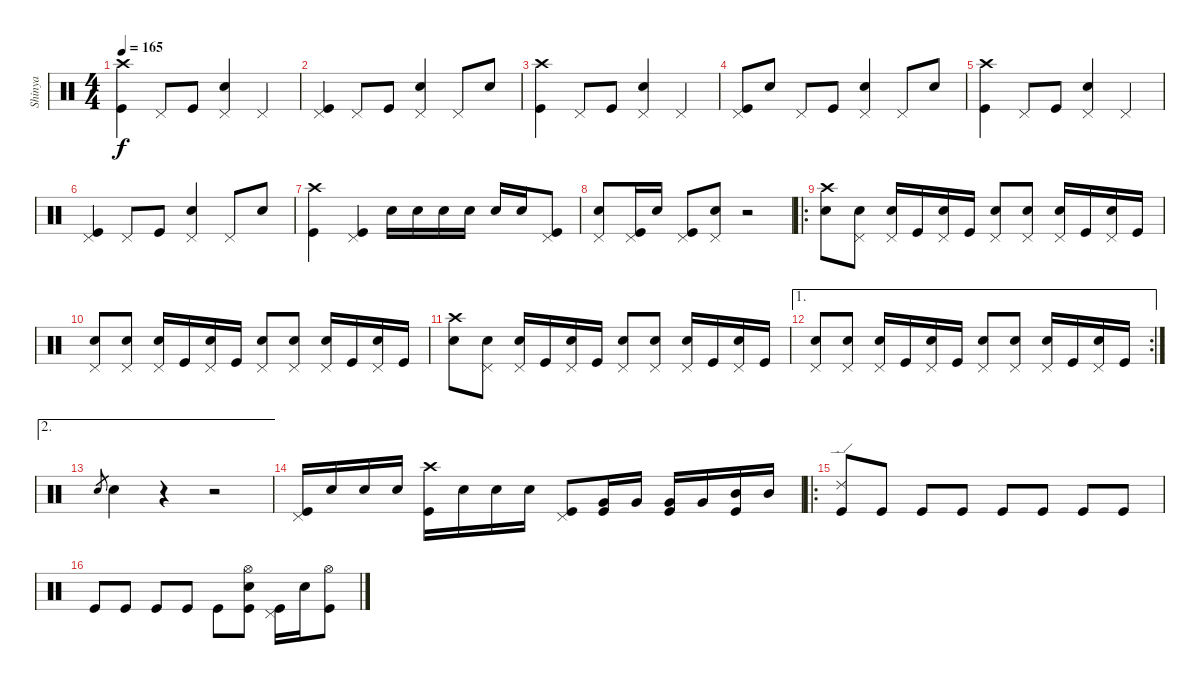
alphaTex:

\track ("Shinya" "Shinya") {instrument percussion}
\staff {score}
\articulation defaults
\ts (4 4)
\tempo 165
\clef neutral
\ks c
("Kick (hit)" "Crash high (hit)").4{dy f} "Pedal Hi-Hat (hit)".8 "Kick (hit)".8 ("Pedal Hi-Hat (hit)" "Electric Snare (hit)").4 "Pedal Hi-Hat (hit)".4 |
("Pedal Hi-Hat (hit)" "Kick (hit)").4 "Pedal Hi-Hat (hit)".8 "Kick (hit)".8 ("Electric Snare (hit)" "Pedal Hi-Hat (hit)").4 "Pedal Hi-Hat (hit)".8 "Electric Snare (hit)".8 |
("Kick (hit)" "Crash high (hit)").4 "Pedal Hi-Hat (hit)".8 "Kick (hit)".8 ("Pedal Hi-Hat (hit)" "Electric Snare (hit)").4 "Pedal Hi-Hat (hit)".4 |
("Pedal Hi-Hat (hit)" "Kick (hit)").8 "Electric Snare (hit)".8 "Pedal Hi-Hat (hit)".8 "Kick (hit)".8 ("Pedal Hi-Hat (hit)" "Electric Snare (hit)").4 "Pedal Hi-Hat (hit)".8 "Electric Snare (hit)".8 |
("Kick (hit)" "Crash high (hit)").4 "Pedal Hi-Hat (hit)".8 "Kick (hit)".8 ("Pedal Hi-Hat (hit)" "Electric Snare (hit)").4 "Pedal Hi-Hat (hit)".4 |
("Pedal Hi-Hat (hit)" "Kick (hit)").4 "Pedal Hi-Hat (hit)".8 "Kick (hit)".8 ("Electric Snare (hit)" "Pedal Hi-Hat (hit)").4 "Pedal Hi-Hat (hit)".8 "Electric Snare (hit)".8 |
("Crash high (hit)" "Kick (hit)").4 ("Pedal Hi-Hat (hit)" "Kick (hit)").4 "Electric Snare (hit)".16 "Electric Snare (hit)".16 "Electric Snare (hit)".16 "Electric Snare (hit)".16 "Electric Snare (hit)".16 "Electric Snare (hit)".16 ("Pedal Hi-Hat (hit)" "Kick (hit)").8 |
("Pedal Hi-Hat (hit)" "Electric Snare (hit)").8 ("Pedal Hi-Hat (hit)" "Kick (hit)").16 "Electric Snare (hit)".16 ("Pedal Hi-Hat (hit)" "Kick (hit)").8 ("Pedal Hi-Hat (hit)" "Electric Snare (hit)").8 r.2 |
\ro
("Crash high (hit)" "Electric Snare (hit)").8 ("Pedal Hi-Hat (hit)" "Electric Snare (hit)").8 ("Pedal Hi-Hat (hit)" "Electric Snare (hit)").16 "Kick (hit)".16 ("Pedal Hi-Hat (hit)" "Electric Snare (hit)").16 "Kick (hit)".16 ("Pedal Hi-Hat (hit)" "Electric Snare (hit)").8 ("Pedal Hi-Hat (hit)" "Electric Snare (hit)").8 ("Pedal Hi-Hat (hit)" "Electric Snare (hit)").16 "Kick (hit)".16 ("Electric Snare (hit)" "Pedal Hi-Hat (hit)").16 "Kick (hit)".16 |
("Pedal Hi-Hat (hit)" "Electric Snare (hit)").8 ("Pedal Hi-Hat (hit)" "Electric Snare (hit)").8 ("Pedal Hi-Hat (hit)" "Electric Snare (hit)").16 "Kick (hit)".16 ("Pedal Hi-Hat (hit)" "Electric Snare (hit)").16 "Kick (hit)".16 ("Pedal Hi-Hat (hit)" "Electric Snare (hit)").8 ("Pedal Hi-Hat (hit)" "Electric Snare (hit)").8 ("Pedal Hi-Hat (hit)" "Electric Snare (hit)").16 "Kick (hit)".16 ("Electric Snare (hit)" "Pedal Hi-Hat (hit)").16 "Kick (hit)".16 |
("Crash high (hit)" "Electric Snare (hit)").8 ("Pedal Hi-Hat (hit)" "Electric Snare (hit)").8 ("Pedal Hi-Hat (hit)" "Electric Snare (hit)").16 "Kick (hit)".16 ("Pedal Hi-Hat (hit)" "Electric Snare (hit)").16 "Kick (hit)".16 ("Pedal Hi-Hat (hit)" "Electric Snare (hit)").8 ("Pedal Hi-Hat (hit)" "Electric Snare (hit)").8 ("Pedal Hi-Hat (hit)" "Electric Snare (hit)").16 "Kick (hit)".16 ("Electric Snare (hit)" "Pedal Hi-Hat (hit)").16 "Kick (hit)".16 |
\ae 1
\rc 2
("Pedal Hi-Hat (hit)" "Electric Snare (hit)").8 ("Pedal Hi-Hat (hit)" "Electric Snare (hit)").8 ("Pedal Hi-Hat (hit)" "Electric Snare (hit)").16 "Kick (hit)".16 ("Pedal Hi-Hat (hit)" "Electric Snare (hit)").16 "Kick (hit)".16 ("Pedal Hi-Hat (hit)" "Electric Snare (hit)").8 ("Pedal Hi-Hat (hit)" "Electric Snare (hit)").8 ("Pedal Hi-Hat (hit)" "Electric Snare (hit)").16 "Kick (hit)".16 ("Electric Snare (hit)" "Pedal Hi-Hat (hit)").16 "Kick (hit)".16 |
\ae 2 "Electric Snare (hit)".8{gr} "Electric Snare (hit)".4
r.4 r.2 |
("Kick (hit)" "Pedal Hi-Hat (hit)").16 "Electric Snare (hit)".16 "Electric Snare (hit)".16 "Electric Snare (hit)".16 ("Crash high (hit)" "Kick (hit)").16 "Electric Snare (hit)".16 "Electric Snare (hit)".16 "Electric Snare (hit)".16 ("Kick (hit)" "Pedal Hi-Hat (hit)").8 ("Very Low Tom (hit)" "Kick (hit)").16 "Very Low Tom (hit)".16 ("Very Low Tom (hit)" "Kick (hit)").16 "Very Low Tom (hit)".16 ("Mid Tom (hit)" "Kick (hit)").16 "Mid Tom (hit)".16 |
\ro
("Ride (edge) 2" "Kick (hit)").8 "Kick (hit)".8 "Kick (hit)".8 "Kick (hit)".8 "Kick (hit)".8 "Kick (hit)".8 "Kick (hit)".8 "Kick (hit)".8 |
"Kick (hit)".8 "Kick (hit)".8 "Kick (hit)".8 "Kick (hit)".8 "Kick (hit)".8 ("Electric Snare (hit)" "Kick (hit)" "Hi-Hat (open)").8 ("Pedal Hi-Hat (hit)" "Kick (hit)").16 "Electric Snare (hit)".16 ("Hi-Hat (open)" "Kick (hit)").8
